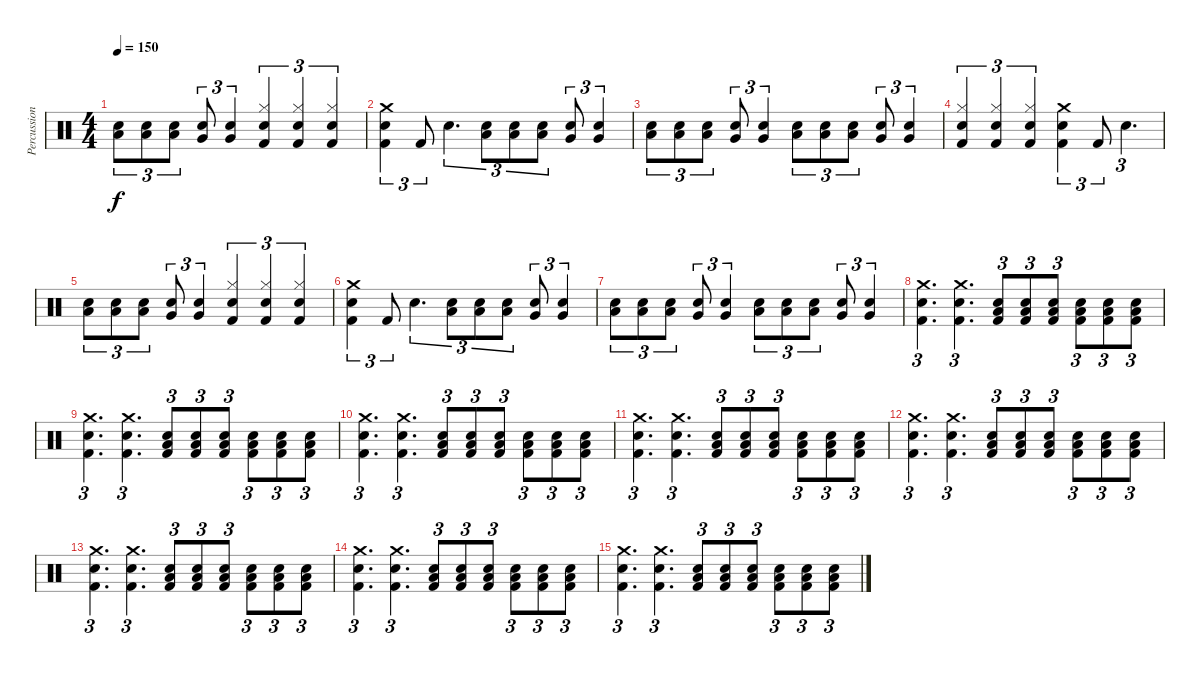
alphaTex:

\track ("Percussion" "Percussion") {instrument percussion}
\staff {score}
\articulation defaults
\ts (4 4)
\tempo 150
\clef neutral
\ks c
("Low Tom (hit)" "Electric Snare (hit)").8{tu (3 2) dy f} ("Low Tom (hit)" "Electric Snare (hit)").8{tu (3 2)} ("Low Tom (hit)" "Electric Snare (hit)").8{tu (3 2)} ("Very Low Tom (hit)" "Electric Snare (hit)").8{tu (3 2)} ("Very Low Tom (hit)" "Electric Snare (hit)").4{tu (3 2)} ("Hi-Hat (closed)" "Electric Snare (hit)" "Kick (hit) 2").4{tu (3 2)} ("Hi-Hat (closed)" "Electric Snare (hit)" "Kick (hit) 2").4{tu (3 2)} ("Hi-Hat (closed)" "Electric Snare (hit)" "Kick (hit) 2").4{tu (3 2)} |
("Crash medium (hit)" "Electric Snare (hit)" "Kick (hit) 2").4{tu (3 2)} "Kick (hit) 2".8{tu (3 2)} "Electric Snare (hit)".4{d tu (3 2)} ("Low Tom (hit)" "Electric Snare (hit)").8{tu (3 2)} ("Low Tom (hit)" "Electric Snare (hit)").8{tu (3 2)} ("Low Tom (hit)" "Electric Snare (hit)").8{tu (3 2)} ("Very Low Tom (hit)" "Electric Snare (hit)").8{tu (3 2)} ("Very Low Tom (hit)" "Electric Snare (hit)").4{tu (3 2)} |
("Low Tom (hit)" "Electric Snare (hit)").8{tu (3 2)} ("Low Tom (hit)" "Electric Snare (hit)").8{tu (3 2)} ("Low Tom (hit)" "Electric Snare (hit)").8{tu (3 2)} ("Very Low Tom (hit)" "Electric Snare (hit)").8{tu (3 2)} ("Very Low Tom (hit)" "Electric Snare (hit)").4{tu (3 2)} ("Low Tom (hit)" "Electric Snare (hit)").8{tu (3 2)} ("Low Tom (hit)" "Electric Snare (hit)").8{tu (3 2)} ("Low Tom (hit)" "Electric Snare (hit)").8{tu (3 2)} ("Very Low Tom (hit)" "Electric Snare (hit)").8{tu (3 2)} ("Very Low Tom (hit)" "Electric Snare (hit)").4{tu (3 2)} |
("Hi-Hat (closed)" "Electric Snare (hit)" "Kick (hit) 2").4{tu (3 2)} ("Hi-Hat (closed)" "Electric Snare (hit)" "Kick (hit) 2").4{tu (3 2)} ("Hi-Hat (closed)" "Electric Snare (hit)" "Kick (hit) 2").4{tu (3 2)} ("Crash medium (hit)" "Electric Snare (hit)" "Kick (hit) 2").4{tu (3 2)} "Kick (hit) 2".8{tu (3 2)} "Electric Snare (hit)".4{d tu (3 2)} |
("Low Tom (hit)" "Electric Snare (hit)").8{tu (3 2)} ("Low Tom (hit)" "Electric Snare (hit)").8{tu (3 2)} ("Low Tom (hit)" "Electric Snare (hit)").8{tu (3 2)} ("Very Low Tom (hit)" "Electric Snare (hit)").8{tu (3 2)} ("Very Low Tom (hit)" "Electric Snare (hit)").4{tu (3 2)} ("Hi-Hat (closed)" "Electric Snare (hit)" "Kick (hit) 2").4{tu (3 2)} ("Hi-Hat (closed)" "Electric Snare (hit)" "Kick (hit) 2").4{tu (3 2)} ("Hi-Hat (closed)" "Electric Snare (hit)" "Kick (hit) 2").4{tu (3 2)} |
("Crash medium (hit)" "Electric Snare (hit)" "Kick (hit) 2").4{tu (3 2)} "Kick (hit) 2".8{tu (3 2)} "Electric Snare (hit)".4{d tu (3 2)} ("Low Tom (hit)" "Electric Snare (hit)").8{tu (3 2)} ("Low Tom (hit)" "Electric Snare (hit)").8{tu (3 2)} ("Low Tom (hit)" "Electric Snare (hit)").8{tu (3 2)} ("Very Low Tom (hit)" "Electric Snare (hit)").8{tu (3 2)} ("Very Low Tom (hit)" "Electric Snare (hit)").4{tu (3 2)} |
("Low Tom (hit)" "Electric Snare (hit)").8{tu (3 2)} ("Low Tom (hit)" "Electric Snare (hit)").8{tu (3 2)} ("Low Tom (hit)" "Electric Snare (hit)").8{tu (3 2)} ("Very Low Tom (hit)" "Electric Snare (hit)").8{tu (3 2)} ("Very Low Tom (hit)" "Electric Snare (hit)").4{tu (3 2)} ("Low Tom (hit)" "Electric Snare (hit)").8{tu (3 2)} ("Low Tom (hit)" "Electric Snare (hit)").8{tu (3 2)} ("Low Tom (hit)" "Electric Snare (hit)").8{tu (3 2)} ("Very Low Tom (hit)" "Electric Snare (hit)").8{tu (3 2)} ("Very Low Tom (hit)" "Electric Snare (hit)").4{tu (3 2)} |
("Crash medium (hit)" "Electric Snare (hit)" "Kick (hit) 2").4{d tu (3 2)} ("Crash medium (hit)" "Electric Snare (hit)" "Kick (hit) 2").4{d tu (3 2)} ("Low Tom (hit)" "Electric Snare (hit)" "Kick (hit) 2").8{tu (3 2)} ("Low Tom (hit)" "Electric Snare (hit)" "Kick (hit) 2").8{tu (3 2)} ("Low Tom (hit)" "Electric Snare (hit)" "Kick (hit) 2").8{tu (3 2)} ("Low Floor Tom (hit)" "Electric Snare (hit)" "Kick (hit) 2").8{tu (3 2)} ("Low Floor Tom (hit)" "Electric Snare (hit)" "Kick (hit) 2").8{tu (3 2)} ("Low Floor Tom (hit)" "Electric Snare (hit)" "Kick (hit) 2").8{tu (3 2)} |
("Crash medium (hit)" "Electric Snare (hit)" "Kick (hit) 2").4{d tu (3 2)} ("Crash medium (hit)" "Electric Snare (hit)" "Kick (hit) 2").4{d tu (3 2)} ("Low Tom (hit)" "Electric Snare (hit)" "Kick (hit) 2").8{tu (3 2)} ("Low Tom (hit)" "Electric Snare (hit)" "Kick (hit) 2").8{tu (3 2)} ("Low Tom (hit)" "Electric Snare (hit)" "Kick (hit) 2").8{tu (3 2)} ("Low Floor Tom (hit)" "Electric Snare (hit)" "Kick (hit) 2").8{tu (3 2)} ("Low Floor Tom (hit)" "Electric Snare (hit)" "Kick (hit) 2").8{tu (3 2)} ("Low Floor Tom (hit)" "Electric Snare (hit)" "Kick (hit) 2").8{tu (3 2)} |
("Crash medium (hit)" "Electric Snare (hit)" "Kick (hit) 2").4{d tu (3 2)} ("Crash medium (hit)" "Electric Snare (hit)" "Kick (hit) 2").4{d tu (3 2)} ("Low Tom (hit)" "Electric Snare (hit)" "Kick (hit) 2").8{tu (3 2)} ("Low Tom (hit)" "Electric Snare (hit)" "Kick (hit) 2").8{tu (3 2)} ("Low Tom (hit)" "Electric Snare (hit)" "Kick (hit) 2").8{tu (3 2)} ("Low Floor Tom (hit)" "Electric Snare (hit)" "Kick (hit) 2").8{tu (3 2)} ("Low Floor Tom (hit)" "Electric Snare (hit)" "Kick (hit) 2").8{tu (3 2)} ("Low Floor Tom (hit)" "Electric Snare (hit)" "Kick (hit) 2").8{tu (3 2)} |
("Crash medium (hit)" "Electric Snare (hit)" "Kick (hit) 2").4{d tu (3 2)} ("Crash medium (hit)" "Electric Snare (hit)" "Kick (hit) 2").4{d tu (3 2)} ("Low Tom (hit)" "Electric Snare (hit)" "Kick (hit) 2").8{tu (3 2)} ("Low Tom (hit)" "Electric Snare (hit)" "Kick (hit) 2").8{tu (3 2)} ("Low Tom (hit)" "Electric Snare (hit)" "Kick (hit) 2").8{tu (3 2)} ("Low Floor Tom (hit)" "Electric Snare (hit)" "Kick (hit) 2").8{tu (3 2)} ("Low Floor Tom (hit)" "Electric Snare (hit)" "Kick (hit) 2").8{tu (3 2)} ("Low Floor Tom (hit)" "Electric Snare (hit)" "Kick (hit) 2").8{tu (3 2)} |
("Crash medium (hit)" "Electric Snare (hit)" "Kick (hit) 2").4{d tu (3 2)} ("Crash medium (hit)" "Electric Snare (hit)" "Kick (hit) 2").4{d tu (3 2)} ("Low Tom (hit)" "Electric Snare (hit)" "Kick (hit) 2").8{tu (3 2)} ("Low Tom (hit)" "Electric Snare (hit)" "Kick (hit) 2").8{tu (3 2)} ("Low Tom (hit)" "Electric Snare (hit)" "Kick (hit) 2").8{tu (3 2)} ("Low Floor Tom (hit)" "Electric Snare (hit)" "Kick (hit) 2").8{tu (3 2)} ("Low Floor Tom (hit)" "Electric Snare (hit)" "Kick (hit) 2").8{tu (3 2)} ("Low Floor Tom (hit)" "Electric Snare (hit)" "Kick (hit) 2").8{tu (3 2)} |
("Crash medium (hit)" "Electric Snare (hit)" "Kick (hit) 2").4{d tu (3 2)} ("Crash medium (hit)" "Electric Snare (hit)" "Kick (hit) 2").4{d tu (3 2)} ("Low Tom (hit)" "Electric Snare (hit)" "Kick (hit) 2").8{tu (3 2)} ("Low Tom (hit)" "Electric Snare (hit)" "Kick (hit) 2").8{tu (3 2)} ("Low Tom (hit)" "Electric Snare (hit)" "Kick (hit) 2").8{tu (3 2)} ("Low Floor Tom (hit)" "Electric Snare (hit)" "Kick (hit) 2").8{tu (3 2)} ("Low Floor Tom (hit)" "Electric Snare (hit)" "Kick (hit) 2").8{tu (3 2)} ("Low Floor Tom (hit)" "Electric Snare (hit)" "Kick (hit) 2").8{tu (3 2)} |
("Crash medium (hit)" "Electric Snare (hit)" "Kick (hit) 2").4{d tu (3 2)} ("Crash medium (hit)" "Electric Snare (hit)" "Kick (hit) 2").4{d tu (3 2)} ("Low Tom (hit)" "Electric Snare (hit)" "Kick (hit) 2").8{tu (3 2)} ("Low Tom (hit)" "Electric Snare (hit)" "Kick (hit) 2").8{tu (3 2)} ("Low Tom (hit)" "Electric Snare (hit)" "Kick (hit) 2").8{tu (3 2)} ("Low Floor Tom (hit)" "Electric Snare (hit)" "Kick (hit) 2").8{tu (3 2)} ("Low Floor Tom (hit)" "Electric Snare (hit)" "Kick (hit) 2").8{tu (3 2)} ("Low Floor Tom (hit)" "Electric Snare (hit)" "Kick (hit) 2").8{tu (3 2)} |
("Crash medium (hit)" "Electric Snare (hit)" "Kick (hit) 2").4{d tu (3 2)} ("Crash medium (hit)" "Electric Snare (hit)" "Kick (hit) 2").4{d tu (3 2)} ("Low Tom (hit)" "Electric Snare (hit)" "Kick (hit) 2").8{tu (3 2)} ("Low Tom (hit)" "Electric Snare (hit)" "Kick (hit) 2").8{tu (3 2)} ("Low Tom (hit)" "Electric Snare (hit)" "Kick (hit) 2").8{tu (3 2)} ("Low Floor Tom (hit)" "Electric Snare (hit)" "Kick (hit) 2").8{tu (3 2)} ("Low Floor Tom (hit)" "Electric Snare (hit)" "Kick (hit) 2").8{tu (3 2)} ("Low Floor Tom (hit)" "Electric Snare (hit)" "Kick (hit) 2").8{tu (3 2)}
